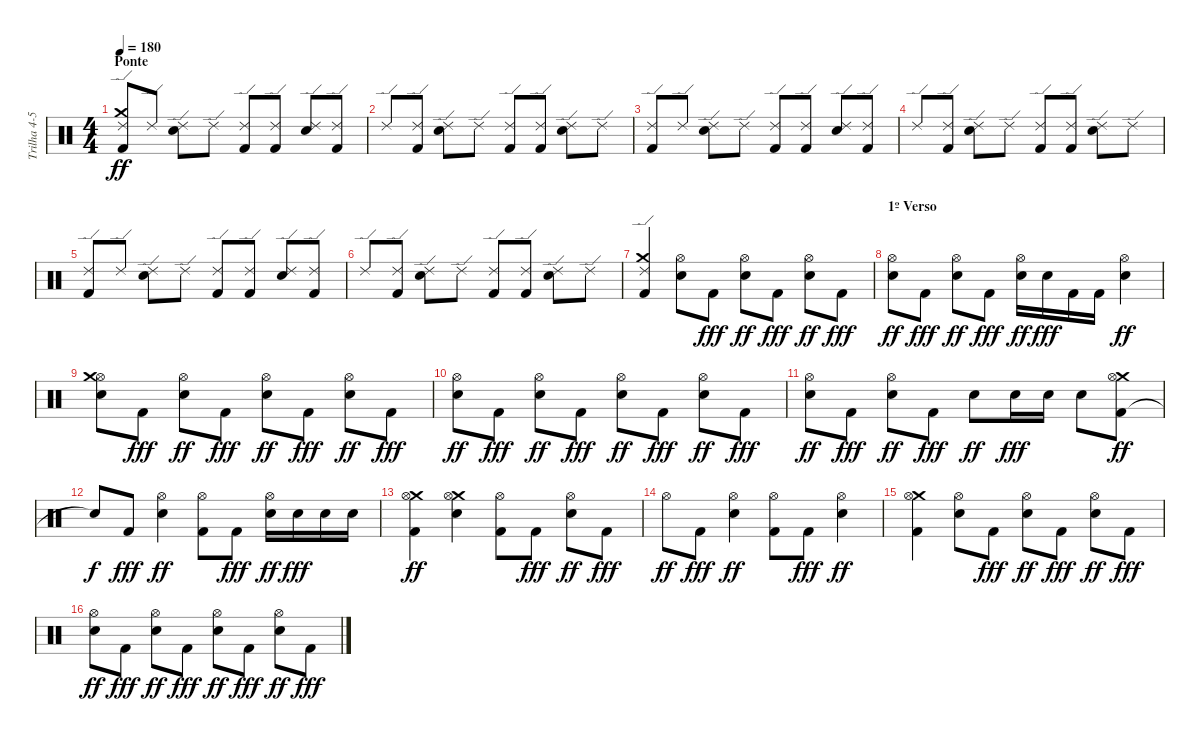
\track ("Trilha 4-5" "Trilha 4-5") {instrument percussion}
\staff {score}
\articulation defaults
\ts (4 4)
\section ("" "Ponte")
\tempo 180
\clef neutral
\ks c
("Kick (hit) 2" "Crash medium (hit)" "Ride (edge) 2").8{dy ff} "Ride (edge) 2".8 ("Snare (hit) 2" "Ride (edge) 2").8 "Ride (edge) 2".8 ("Kick (hit) 2" "Ride (edge) 2").8 ("Kick (hit) 2" "Ride (edge) 2").8 ("Snare (hit) 2" "Ride (edge) 2").8 ("Kick (hit) 2" "Ride (edge) 2").8 |
"Ride (edge) 2".8 ("Kick (hit) 2" "Ride (edge) 2").8 ("Snare (hit) 2" "Ride (edge) 2").8 "Ride (edge) 2".8 ("Kick (hit) 2" "Ride (edge) 2").8 ("Kick (hit) 2" "Ride (edge) 2").8 ("Snare (hit) 2" "Ride (edge) 2").8 "Ride (edge) 2".8 |
("Kick (hit) 2" "Ride (edge) 2").8 "Ride (edge) 2".8 ("Snare (hit) 2" "Ride (edge) 2").8 "Ride (edge) 2".8 ("Kick (hit) 2" "Ride (edge) 2").8 ("Kick (hit) 2" "Ride (edge) 2").8 ("Snare (hit) 2" "Ride (edge) 2").8 ("Kick (hit) 2" "Ride (edge) 2").8 |
"Ride (edge) 2".8 ("Kick (hit) 2" "Ride (edge) 2").8 ("Snare (hit) 2" "Ride (edge) 2").8 "Ride (edge) 2".8 ("Kick (hit) 2" "Ride (edge) 2").8 ("Kick (hit) 2" "Ride (edge) 2").8 ("Snare (hit) 2" "Ride (edge) 2").8 "Ride (edge) 2".8 |
("Kick (hit) 2" "Ride (edge) 2").8 "Ride (edge) 2".8 ("Snare (hit) 2" "Ride (edge) 2").8 "Ride (edge) 2".8 ("Kick (hit) 2" "Ride (edge) 2").8 ("Kick (hit) 2" "Ride (edge) 2").8 ("Snare (hit) 2" "Ride (edge) 2").8 ("Kick (hit) 2" "Ride (edge) 2").8 |
"Ride (edge) 2".8 ("Kick (hit) 2" "Ride (edge) 2").8 ("Snare (hit) 2" "Ride (edge) 2").8 "Ride (edge) 2".8 ("Kick (hit) 2" "Ride (edge) 2").8 ("Kick (hit) 2" "Ride (edge) 2").8 ("Snare (hit) 2" "Ride (edge) 2").8 "Ride (edge) 2".8 |
("Kick (hit) 2" "Crash medium (hit)" "Ride (edge) 2").4 ("Snare (hit) 2" "Hi-Hat (open)").8 "Kick (hit) 2".8{dy fff} ("Snare (hit) 2" "Hi-Hat (open)").8{dy ff} "Kick (hit) 2".8{dy fff} ("Snare (hit) 2" "Hi-Hat (open)").8{dy ff} "Kick (hit) 2".8{dy fff} |
\section ("" "1º Verso")
("Snare (hit) 2" "Hi-Hat (open)").8{dy ff} "Kick (hit) 2".8{dy fff} ("Snare (hit) 2" "Hi-Hat (open)").8{dy ff} "Kick (hit) 2".8{dy fff} ("Snare (hit) 2" "Hi-Hat (open)").16{dy ff} "Snare (hit) 2".16{dy fff} "Kick (hit) 2".16 "Kick (hit) 2".16 ("Snare (hit) 2" "Hi-Hat (open)").4{dy ff} |
("Snare (hit) 2" "Hi-Hat (open)" "Crash medium (hit)").8 "Kick (hit) 2".8{dy fff} ("Snare (hit) 2" "Hi-Hat (open)").8{dy ff} "Kick (hit) 2".8{dy fff} ("Snare (hit) 2" "Hi-Hat (open)").8{dy ff} "Kick (hit) 2".8{dy fff} ("Snare (hit) 2" "Hi-Hat (open)").8{dy ff} "Kick (hit) 2".8{dy fff} |
("Snare (hit) 2" "Hi-Hat (open)").8{dy ff} "Kick (hit) 2".8{dy fff} ("Snare (hit) 2" "Hi-Hat (open)").8{dy ff} "Kick (hit) 2".8{dy fff} ("Snare (hit) 2" "Hi-Hat (open)").8{dy ff} "Kick (hit) 2".8{dy fff} ("Snare (hit) 2" "Hi-Hat (open)").8{dy ff} "Kick (hit) 2".8{dy fff} |
("Snare (hit) 2" "Hi-Hat (open)").8{dy ff} "Kick (hit) 2".8{dy fff} ("Snare (hit) 2" "Hi-Hat (open)").8{dy ff} "Kick (hit) 2".8{dy fff} "Snare (hit) 2".8{dy ff} "Snare (hit) 2".16{dy fff} "Snare (hit) 2".16 "Snare (hit) 2".8 ("Kick (hit) 2" "Crash medium (hit)" "Hi-Hat (open)").8{dy ff} |
"Snare (hit)"{t}.8{dy f} "Kick (hit) 2".8{dy fff} ("Snare (hit) 2" "Hi-Hat (open)").4{dy ff} ("Kick (hit) 2" "Hi-Hat (open)").8 "Kick (hit) 2".8{dy fff} ("Snare (hit) 2" "Hi-Hat (open)").16{dy ff} "Snare (hit) 2".16{dy fff} "Snare (hit) 2".16 "Snare (hit) 2".16 |
("Kick (hit) 2" "Crash medium (hit)" "Hi-Hat (open)").4{dy ff} ("Snare (hit) 2" "Crash medium (hit)" "Hi-Hat (open)").4 ("Kick (hit) 2" "Hi-Hat (open)").8 "Kick (hit) 2".8{dy fff} ("Snare (hit) 2" "Hi-Hat (open)").8{dy ff} "Kick (hit) 2".8{dy fff} |
"Hi-Hat (open)".8{dy ff} "Kick (hit) 2".8{dy fff} ("Snare (hit) 2" "Hi-Hat (open)").4{dy ff} ("Kick (hit) 2" "Hi-Hat (open)").8 "Kick (hit) 2".8{dy fff} ("Snare (hit) 2" "Hi-Hat (open)").4{dy ff} |
("Kick (hit) 2" "Crash medium (hit)" "Hi-Hat (open)").4 ("Snare (hit) 2" "Hi-Hat (open)").8 "Kick (hit) 2".8{dy fff} ("Snare (hit) 2" "Hi-Hat (open)").8{dy ff} "Kick (hit) 2".8{dy fff} ("Snare (hit) 2" "Hi-Hat (open)").8{dy ff} "Kick (hit) 2".8{dy fff} |
("Snare (hit) 2" "Hi-Hat (open)").8{dy ff} "Kick (hit) 2".8{dy fff} ("Snare (hit) 2" "Hi-Hat (open)").8{dy ff} "Kick (hit) 2".8{dy fff} ("Snare (hit) 2" "Hi-Hat (open)").8{dy ff} "Kick (hit) 2".8{dy fff} ("Snare (hit) 2" "Hi-Hat (open)").8{dy ff} "Kick (hit) 2".8{dy fff}
